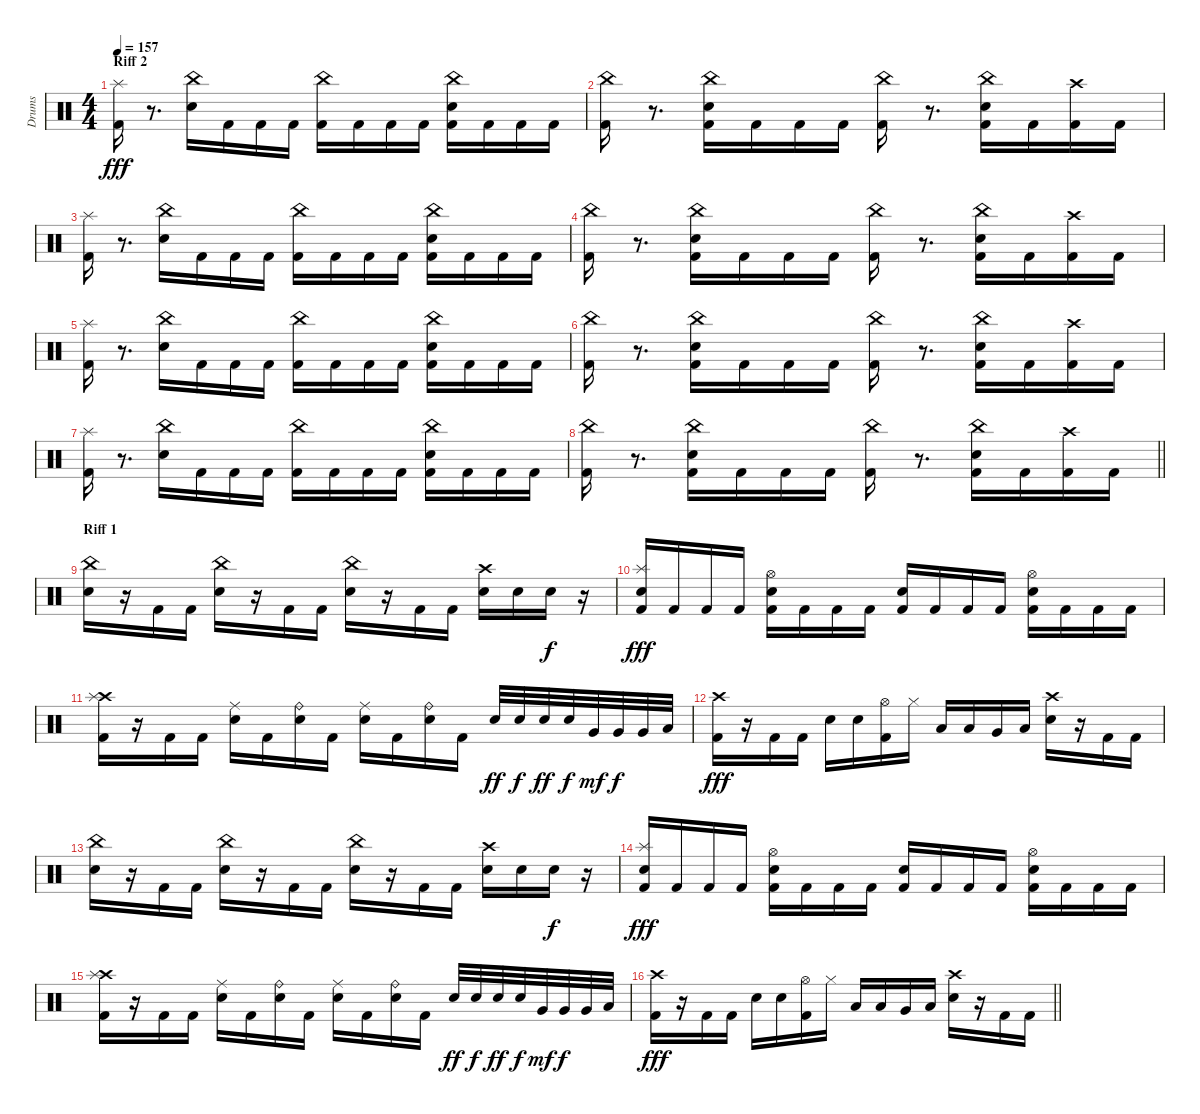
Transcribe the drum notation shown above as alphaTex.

\track ("Drums" "Drums") {instrument percussion}
\staff {score}
\articulation defaults
\ts (4 4)
\section ("" "Riff 2")
\tempo 157
\clef neutral
\ks c
("Kick (hit) 2" "Splash (hit)").16{dy fff} r.8{d} ("Snare (hit) 2" "China (hit)").16 "Kick (hit) 2".16 "Kick (hit) 2".16 "Kick (hit) 2".16 ("Kick (hit) 2" "China (hit)").16 "Kick (hit) 2".16 "Kick (hit) 2".16 "Kick (hit) 2".16 ("Kick (hit) 2" "Snare (hit) 2" "China (hit)").16 "Kick (hit) 2".16 "Kick (hit) 2".16 "Kick (hit) 2".16 |
("Kick (hit) 2" "China (hit)").16 r.8{d} ("Kick (hit) 2" "Snare (hit) 2" "China (hit)").16 "Kick (hit) 2".16 "Kick (hit) 2".16 "Kick (hit) 2".16 ("Kick (hit) 2" "China (hit)").16 r.8{d} ("Kick (hit) 2" "Snare (hit) 2" "China (hit)").16 "Kick (hit) 2".16 ("Kick (hit) 2" "Crash high (hit)").16 "Kick (hit) 2".16 |
("Kick (hit) 2" "Splash (hit)").16 r.8{d} ("Snare (hit) 2" "China (hit)").16 "Kick (hit) 2".16 "Kick (hit) 2".16 "Kick (hit) 2".16 ("Kick (hit) 2" "China (hit)").16 "Kick (hit) 2".16 "Kick (hit) 2".16 "Kick (hit) 2".16 ("Kick (hit) 2" "Snare (hit) 2" "China (hit)").16 "Kick (hit) 2".16 "Kick (hit) 2".16 "Kick (hit) 2".16 |
("Kick (hit) 2" "China (hit)").16 r.8{d} ("Kick (hit) 2" "Snare (hit) 2" "China (hit)").16 "Kick (hit) 2".16 "Kick (hit) 2".16 "Kick (hit) 2".16 ("Kick (hit) 2" "China (hit)").16 r.8{d} ("Kick (hit) 2" "Snare (hit) 2" "China (hit)").16 "Kick (hit) 2".16 ("Kick (hit) 2" "Crash high (hit)").16 "Kick (hit) 2".16 |
("Kick (hit) 2" "Splash (hit)").16 r.8{d} ("Snare (hit) 2" "China (hit)").16 "Kick (hit) 2".16 "Kick (hit) 2".16 "Kick (hit) 2".16 ("Kick (hit) 2" "China (hit)").16 "Kick (hit) 2".16 "Kick (hit) 2".16 "Kick (hit) 2".16 ("Kick (hit) 2" "Snare (hit) 2" "China (hit)").16 "Kick (hit) 2".16 "Kick (hit) 2".16 "Kick (hit) 2".16 |
("Kick (hit) 2" "China (hit)").16 r.8{d} ("Kick (hit) 2" "Snare (hit) 2" "China (hit)").16 "Kick (hit) 2".16 "Kick (hit) 2".16 "Kick (hit) 2".16 ("Kick (hit) 2" "China (hit)").16 r.8{d} ("Kick (hit) 2" "Snare (hit) 2" "China (hit)").16 "Kick (hit) 2".16 ("Kick (hit) 2" "Crash high (hit)").16 "Kick (hit) 2".16 |
("Kick (hit) 2" "Splash (hit)").16 r.8{d} ("Snare (hit) 2" "China (hit)").16 "Kick (hit) 2".16 "Kick (hit) 2".16 "Kick (hit) 2".16 ("Kick (hit) 2" "China (hit)").16 "Kick (hit) 2".16 "Kick (hit) 2".16 "Kick (hit) 2".16 ("Kick (hit) 2" "Snare (hit) 2" "China (hit)").16 "Kick (hit) 2".16 "Kick (hit) 2".16 "Kick (hit) 2".16 |
\barLineRight lightlight
("Kick (hit) 2" "China (hit)").16 r.8{d} ("Kick (hit) 2" "Snare (hit) 2" "China (hit)").16 "Kick (hit) 2".16 "Kick (hit) 2".16 "Kick (hit) 2".16 ("Kick (hit) 2" "China (hit)").16 r.8{d} ("Kick (hit) 2" "Snare (hit) 2" "China (hit)").16 "Kick (hit) 2".16 ("Kick (hit) 2" "Crash high (hit)").16 "Kick (hit) 2".16 |
\section ("" "Riff 1")
("Snare (hit) 2" "China (hit)").16 r.16 "Kick (hit) 2".16 "Kick (hit) 2".16 ("Snare (hit) 2" "China (hit)").16 r.16 "Kick (hit) 2".16 "Kick (hit) 2".16 ("Snare (hit) 2" "China (hit)").16 r.16 "Kick (hit) 2".16 "Kick (hit) 2".16 ("Snare (hit) 2" "Crash high (hit)").16 "Snare (hit) 2".16 "Snare (hit) 2".16{dy f} r.16 |
("Kick (hit) 2" "Snare (hit) 2" "Splash (hit)").16{dy fff} "Kick (hit) 2".16 "Kick (hit) 2".16 "Kick (hit) 2".16 ("Kick (hit) 2" "Snare (hit) 2" "Hi-Hat (open)").16 "Kick (hit) 2".16 "Kick (hit) 2".16 "Kick (hit) 2".16 ("Kick (hit) 2" "Snare (hit) 2").16 "Kick (hit) 2".16 "Kick (hit) 2".16 "Kick (hit) 2".16 ("Kick (hit) 2" "Snare (hit) 2" "Hi-Hat (open)").16 "Kick (hit) 2".16 "Kick (hit) 2".16 "Kick (hit) 2".16 |
("Kick (hit) 2" "Crash high (hit)" "Splash (hit)").16 r.16 "Kick (hit) 2".16 "Kick (hit) 2".16 ("Snare (hit) 2" "Ride (middle)").16 "Kick (hit) 2".16 ("Snare (hit) 2" "Ride (bell)").16 "Kick (hit) 2".16 ("Snare (hit) 2" "Ride (middle)").16 "Kick (hit) 2".16 ("Snare (hit) 2" "Ride (bell)").16 "Kick (hit) 2".16 "Snare (hit) 2".32{dy ff} "Snare (hit) 2".32{dy f} "Snare (hit) 2".32{dy ff} "Snare (hit) 2".32{dy f} "Very Low Tom (hit)".32{dy mf} "Very Low Tom (hit)".32{dy f} "Very Low Tom (hit)".32 "Low Floor Tom (hit)".32 |
("Kick (hit) 2" "Crash high (hit)").16{dy fff} r.16 "Kick (hit) 2".16 "Kick (hit) 2".16 "Snare (hit) 2".16 "Snare (hit) 2".16 ("Kick (hit) 2" "Hi-Hat (open)").16 "Hi-Hat (closed)".16 "Low Tom (hit)".16 "Low Tom (hit)".16 "Very Low Tom (hit)".16 "Low Floor Tom (hit)".16 ("Snare (hit) 2" "Crash high (hit)").16 r.16 "Kick (hit) 2".16 "Kick (hit) 2".16 |
("Snare (hit) 2" "China (hit)").16 r.16 "Kick (hit) 2".16 "Kick (hit) 2".16 ("Snare (hit) 2" "China (hit)").16 r.16 "Kick (hit) 2".16 "Kick (hit) 2".16 ("Snare (hit) 2" "China (hit)").16 r.16 "Kick (hit) 2".16 "Kick (hit) 2".16 ("Snare (hit) 2" "Crash high (hit)").16 "Snare (hit) 2".16 "Snare (hit) 2".16{dy f} r.16 |
("Kick (hit) 2" "Snare (hit) 2" "Splash (hit)").16{dy fff} "Kick (hit) 2".16 "Kick (hit) 2".16 "Kick (hit) 2".16 ("Kick (hit) 2" "Snare (hit) 2" "Hi-Hat (open)").16 "Kick (hit) 2".16 "Kick (hit) 2".16 "Kick (hit) 2".16 ("Kick (hit) 2" "Snare (hit) 2").16 "Kick (hit) 2".16 "Kick (hit) 2".16 "Kick (hit) 2".16 ("Kick (hit) 2" "Snare (hit) 2" "Hi-Hat (open)").16 "Kick (hit) 2".16 "Kick (hit) 2".16 "Kick (hit) 2".16 |
("Kick (hit) 2" "Crash high (hit)" "Splash (hit)").16 r.16 "Kick (hit) 2".16 "Kick (hit) 2".16 ("Snare (hit) 2" "Ride (middle)").16 "Kick (hit) 2".16 ("Snare (hit) 2" "Ride (bell)").16 "Kick (hit) 2".16 ("Snare (hit) 2" "Ride (middle)").16 "Kick (hit) 2".16 ("Snare (hit) 2" "Ride (bell)").16 "Kick (hit) 2".16 "Snare (hit) 2".32{dy ff} "Snare (hit) 2".32{dy f} "Snare (hit) 2".32{dy ff} "Snare (hit) 2".32{dy f} "Very Low Tom (hit)".32{dy mf} "Very Low Tom (hit)".32{dy f} "Very Low Tom (hit)".32 "Low Floor Tom (hit)".32 |
\barLineRight lightlight
("Kick (hit) 2" "Crash high (hit)").16{dy fff} r.16 "Kick (hit) 2".16 "Kick (hit) 2".16 "Snare (hit) 2".16 "Snare (hit) 2".16 ("Kick (hit) 2" "Hi-Hat (open)").16 "Hi-Hat (closed)".16 "Low Tom (hit)".16 "Low Tom (hit)".16 "Very Low Tom (hit)".16 "Low Floor Tom (hit)".16 ("Snare (hit) 2" "Crash high (hit)").16 r.16 "Kick (hit) 2".16 "Kick (hit) 2".16
